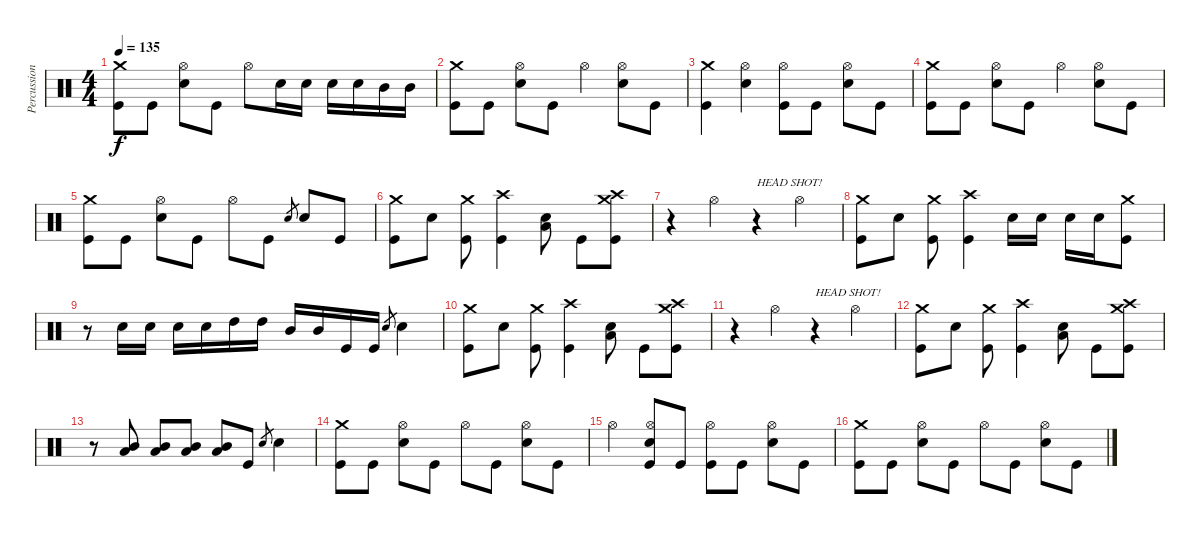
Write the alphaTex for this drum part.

\track ("Percussion" "Percussion") {instrument percussion}
\staff {score}
\articulation defaults
\ts (4 4)
\tempo 135
\clef neutral
\ks c
("Crash medium (hit)" "Kick (hit)").8{dy f} "Kick (hit)".8 ("Hi-Hat (open)" "Snare (hit) 2").8 "Kick (hit)".8 "Hi-Hat (open)".8 "Snare (hit) 2".16 "Snare (hit) 2".16 "Snare (hit) 2".16 "Snare (hit) 2".16 "Mid Tom (hit)".16 "Mid Tom (hit)".16 |
("Crash medium (hit)" "Kick (hit)").8 "Kick (hit)".8 ("Hi-Hat (open)" "Snare (hit) 2").8 "Kick (hit)".8 "Hi-Hat (open)".4 ("Hi-Hat (open)" "Snare (hit) 2").8 "Kick (hit)".8 |
("Crash medium (hit)" "Kick (hit)").4 ("Hi-Hat (open)" "Snare (hit) 2").4 ("Hi-Hat (open)" "Kick (hit)").8 "Kick (hit)".8 ("Hi-Hat (open)" "Snare (hit) 2").8 "Kick (hit)".8 |
("Crash medium (hit)" "Kick (hit)").8 "Kick (hit)".8 ("Hi-Hat (open)" "Snare (hit) 2").8 "Kick (hit)".8 "Hi-Hat (open)".4 ("Hi-Hat (open)" "Snare (hit) 2").8 "Kick (hit)".8 |
("Crash medium (hit)" "Kick (hit)").8 "Kick (hit)".8 ("Hi-Hat (open)" "Snare (hit) 2").8 "Kick (hit)".8 "Hi-Hat (open)".8 "Kick (hit)".8 "Snare (hit) 2".8{gr} "Snare (hit) 2".8 "Kick (hit)".8 |
("Crash medium (hit)" "Kick (hit)").8 "Snare (hit) 2".8 ("Crash medium (hit)" "Kick (hit)").8 ("Crash high (hit)" "Kick (hit)").4 ("Low Tom (hit)" "Snare (hit) 2").8 "Kick (hit)".8 ("Crash medium (hit)" "Crash high (hit)" "Kick (hit)").8 |
r.4 "Hi-Hat (open)".4 r.4{txt "HEAD SHOT!"} "Hi-Hat (open)".4 |
("Crash medium (hit)" "Kick (hit)").8 "Snare (hit) 2".8 ("Crash medium (hit)" "Kick (hit)").8 ("Crash high (hit)" "Kick (hit)").4 "Snare (hit) 2".16 "Snare (hit) 2".16 "Snare (hit) 2".16 "Snare (hit) 2".16 ("Crash medium (hit)" "Kick (hit)").8 |
r.8 "Snare (hit) 2".16 "Snare (hit) 2".16 "Snare (hit) 2".16 "Snare (hit) 2".16 "High Tom (hit)".16 "High Tom (hit)".16 "Mid Tom (hit)".16 "Mid Tom (hit)".16 "Kick (hit)".16 "Kick (hit)".16 "Snare (hit) 2".8{gr} "Snare (hit) 2".4 |
("Crash medium (hit)" "Kick (hit)").8 "Snare (hit) 2".8 ("Crash medium (hit)" "Kick (hit)").8 ("Crash high (hit)" "Kick (hit)").4 ("Low Tom (hit)" "Snare (hit) 2").8 "Kick (hit)".8 ("Crash medium (hit)" "Crash high (hit)" "Kick (hit)").8 |
r.4 "Hi-Hat (open)".4 r.4{txt "HEAD SHOT!"} "Hi-Hat (open)".4 |
("Crash medium (hit)" "Kick (hit)").8 "Snare (hit) 2".8 ("Crash medium (hit)" "Kick (hit)").8 ("Crash high (hit)" "Kick (hit)").4 ("Low Tom (hit)" "Snare (hit) 2").8 "Kick (hit)".8 ("Crash medium (hit)" "Crash high (hit)" "Kick (hit)").8 |
r.8 ("Mid Tom (hit)" "Low Tom (hit)").8 ("Mid Tom (hit)" "Low Tom (hit)").8 ("Mid Tom (hit)" "Low Tom (hit)").8 ("Mid Tom (hit)" "Low Tom (hit)").8 "Kick (hit)".8 "Snare (hit) 2".8{gr} "Snare (hit) 2".4 |
("Crash medium (hit)" "Kick (hit)").8 "Kick (hit)".8 ("Hi-Hat (open)" "Snare (hit) 2").8 "Kick (hit)".8 "Hi-Hat (open)".8 "Kick (hit)".8 ("Hi-Hat (open)" "Snare (hit) 2").8 "Kick (hit)".8 |
"Hi-Hat (open)".4 ("Hi-Hat (open)" "Snare (hit) 2" "Kick (hit)").8 "Kick (hit)".8 ("Hi-Hat (open)" "Kick (hit)").8 "Kick (hit)".8 ("Hi-Hat (open)" "Snare (hit) 2").8 "Kick (hit)".8 |
("Crash medium (hit)" "Kick (hit)").8 "Kick (hit)".8 ("Hi-Hat (open)" "Snare (hit) 2").8 "Kick (hit)".8 "Hi-Hat (open)".8 "Kick (hit)".8 ("Hi-Hat (open)" "Snare (hit) 2").8 "Kick (hit)".8
